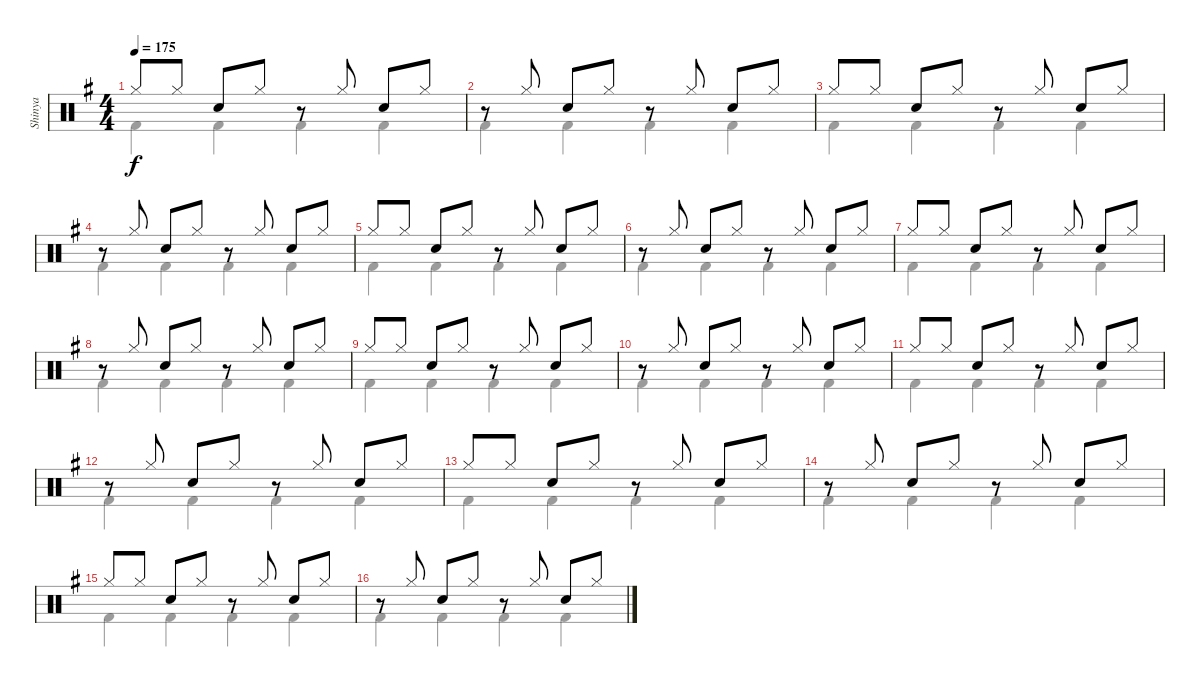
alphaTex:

\track ("Shinya" "Shinya") {instrument percussion}
\staff {score}
\articulation defaults
\voice
\ts (4 4)
\tempo 175
\clef neutral
\ks g "Hi-Hat (closed)".8{dy f} "Hi-Hat (closed)".8 "Snare (hit) 2".8 "Hi-Hat (closed)".8
r.8 "Hi-Hat (closed)".8 "Snare (hit) 2".8 "Hi-Hat (closed)".8 |
r.8 "Hi-Hat (closed)".8 "Snare (hit) 2".8 "Hi-Hat (closed)".8 r.8 "Hi-Hat (closed)".8 "Snare (hit) 2".8 "Hi-Hat (closed)".8 |
"Hi-Hat (closed)".8 "Hi-Hat (closed)".8 "Snare (hit) 2".8 "Hi-Hat (closed)".8 r.8 "Hi-Hat (closed)".8 "Snare (hit) 2".8 "Hi-Hat (closed)".8 |
r.8 "Hi-Hat (closed)".8 "Snare (hit) 2".8 "Hi-Hat (closed)".8 r.8 "Hi-Hat (closed)".8 "Snare (hit) 2".8 "Hi-Hat (closed)".8 |
"Hi-Hat (closed)".8 "Hi-Hat (closed)".8 "Snare (hit) 2".8 "Hi-Hat (closed)".8 r.8 "Hi-Hat (closed)".8 "Snare (hit) 2".8 "Hi-Hat (closed)".8 |
r.8 "Hi-Hat (closed)".8 "Snare (hit) 2".8 "Hi-Hat (closed)".8 r.8 "Hi-Hat (closed)".8 "Snare (hit) 2".8 "Hi-Hat (closed)".8 |
"Hi-Hat (closed)".8 "Hi-Hat (closed)".8 "Snare (hit) 2".8 "Hi-Hat (closed)".8 r.8 "Hi-Hat (closed)".8 "Snare (hit) 2".8 "Hi-Hat (closed)".8 |
r.8 "Hi-Hat (closed)".8 "Snare (hit) 2".8 "Hi-Hat (closed)".8 r.8 "Hi-Hat (closed)".8 "Snare (hit) 2".8 "Hi-Hat (closed)".8 |
"Hi-Hat (closed)".8 "Hi-Hat (closed)".8 "Snare (hit) 2".8 "Hi-Hat (closed)".8 r.8 "Hi-Hat (closed)".8 "Snare (hit) 2".8 "Hi-Hat (closed)".8 |
r.8 "Hi-Hat (closed)".8 "Snare (hit) 2".8 "Hi-Hat (closed)".8 r.8 "Hi-Hat (closed)".8 "Snare (hit) 2".8 "Hi-Hat (closed)".8 |
"Hi-Hat (closed)".8 "Hi-Hat (closed)".8 "Snare (hit) 2".8 "Hi-Hat (closed)".8 r.8 "Hi-Hat (closed)".8 "Snare (hit) 2".8 "Hi-Hat (closed)".8 |
r.8 "Hi-Hat (closed)".8 "Snare (hit) 2".8 "Hi-Hat (closed)".8 r.8 "Hi-Hat (closed)".8 "Snare (hit) 2".8 "Hi-Hat (closed)".8 |
"Hi-Hat (closed)".8 "Hi-Hat (closed)".8 "Snare (hit) 2".8 "Hi-Hat (closed)".8 r.8 "Hi-Hat (closed)".8 "Snare (hit) 2".8 "Hi-Hat (closed)".8 |
r.8 "Hi-Hat (closed)".8 "Snare (hit) 2".8 "Hi-Hat (closed)".8 r.8 "Hi-Hat (closed)".8 "Snare (hit) 2".8 "Hi-Hat (closed)".8 |
"Hi-Hat (closed)".8 "Hi-Hat (closed)".8 "Snare (hit) 2".8 "Hi-Hat (closed)".8 r.8 "Hi-Hat (closed)".8 "Snare (hit) 2".8 "Hi-Hat (closed)".8 |
r.8 "Hi-Hat (closed)".8 "Snare (hit) 2".8 "Hi-Hat (closed)".8 r.8 "Hi-Hat (closed)".8 "Snare (hit) 2".8 "Hi-Hat (closed)".8
\voice
\clef neutral
\ottava regular
\simile none
\ks g "Kick (hit) 2".4{dy f} "Kick (hit) 2".4 "Kick (hit) 2".4 "Kick (hit) 2".4
|
"Kick (hit) 2".4 "Kick (hit) 2".4 "Kick (hit) 2".4 "Kick (hit) 2".4 |
"Kick (hit) 2".4 "Kick (hit) 2".4 "Kick (hit) 2".4 "Kick (hit) 2".4 |
"Kick (hit) 2".4 "Kick (hit) 2".4 "Kick (hit) 2".4 "Kick (hit) 2".4 |
"Kick (hit) 2".4 "Kick (hit) 2".4 "Kick (hit) 2".4 "Kick (hit) 2".4 |
"Kick (hit) 2".4 "Kick (hit) 2".4 "Kick (hit) 2".4 "Kick (hit) 2".4 |
"Kick (hit) 2".4 "Kick (hit) 2".4 "Kick (hit) 2".4 "Kick (hit) 2".4 |
"Kick (hit) 2".4 "Kick (hit) 2".4 "Kick (hit) 2".4 "Kick (hit) 2".4 |
"Kick (hit) 2".4 "Kick (hit) 2".4 "Kick (hit) 2".4 "Kick (hit) 2".4 |
"Kick (hit) 2".4 "Kick (hit) 2".4 "Kick (hit) 2".4 "Kick (hit) 2".4 |
"Kick (hit) 2".4 "Kick (hit) 2".4 "Kick (hit) 2".4 "Kick (hit) 2".4 |
"Kick (hit) 2".4 "Kick (hit) 2".4 "Kick (hit) 2".4 "Kick (hit) 2".4 |
"Kick (hit) 2".4 "Kick (hit) 2".4 "Kick (hit) 2".4 "Kick (hit) 2".4 |
"Kick (hit) 2".4 "Kick (hit) 2".4 "Kick (hit) 2".4 "Kick (hit) 2".4 |
"Kick (hit) 2".4 "Kick (hit) 2".4 "Kick (hit) 2".4 "Kick (hit) 2".4 |
"Kick (hit) 2".4 "Kick (hit) 2".4 "Kick (hit) 2".4 "Kick (hit) 2".4
